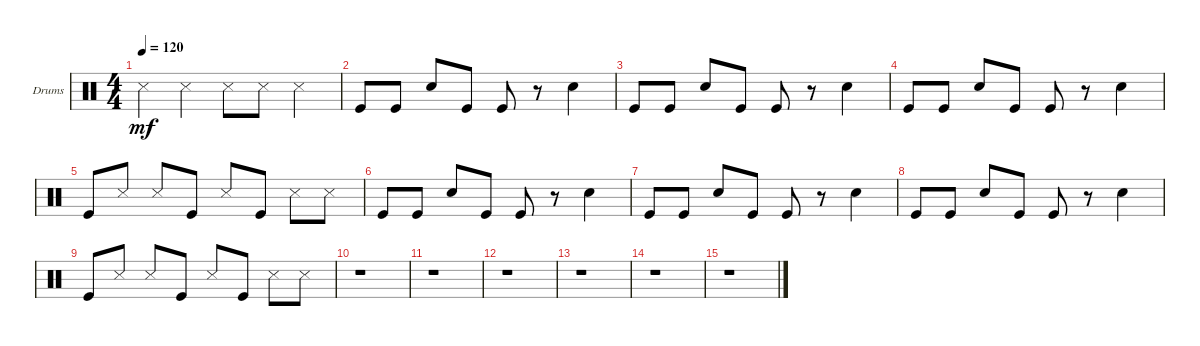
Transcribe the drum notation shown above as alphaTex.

\defaultSystemsLayout 4
\bracketExtendMode groupsimilarinstruments
\firstSystemTrackNameOrientation horizontal
\otherSystemsTrackNameOrientation horizontal
\track ("Drumkit" "Drums") {instrument percussion}
\staff {score}
\articulation defaults
\ts (4 4)
\tempo 120
\clef neutral
\ks c "Snare (side stick) 3".4{dy mf} "Snare (side stick) 3".4 "Snare (side stick) 3".8 "Snare (side stick) 3".8 "Snare (side stick) 3".4
|
"Kick (hit)".8 "Kick (hit)".8 "Snare (hit) 2".8 "Kick (hit)".8 "Kick (hit)".8 r.8 "Snare (hit) 2".4 |
"Kick (hit)".8 "Kick (hit)".8 "Snare (hit) 2".8 "Kick (hit)".8 "Kick (hit)".8 r.8 "Snare (hit) 2".4 |
"Kick (hit)".8 "Kick (hit)".8 "Snare (hit) 2".8 "Kick (hit)".8 "Kick (hit)".8 r.8 "Snare (hit) 2".4 |
"Kick (hit)".8 "Snare (side stick) 3".8 "Snare (side stick) 3".8 "Kick (hit)".8 "Snare (side stick) 3".8 "Kick (hit)".8 "Snare (side stick) 3".8 "Snare (side stick) 3".8 |
"Kick (hit)".8 "Kick (hit)".8 "Snare (hit) 2".8 "Kick (hit)".8 "Kick (hit)".8 r.8 "Snare (hit) 2".4 |
"Kick (hit)".8 "Kick (hit)".8 "Snare (hit) 2".8 "Kick (hit)".8 "Kick (hit)".8 r.8 "Snare (hit) 2".4 |
"Kick (hit)".8 "Kick (hit)".8 "Snare (hit) 2".8 "Kick (hit)".8 "Kick (hit)".8 r.8 "Snare (hit) 2".4 |
"Kick (hit)".8 "Snare (side stick) 3".8 "Snare (side stick) 3".8 "Kick (hit)".8 "Snare (side stick) 3".8 "Kick (hit)".8 "Snare (side stick) 3".8 "Snare (side stick) 3".8 |
r.1 |
r.1 |
r.1 |
r.1 |
r.1 |
r.1
